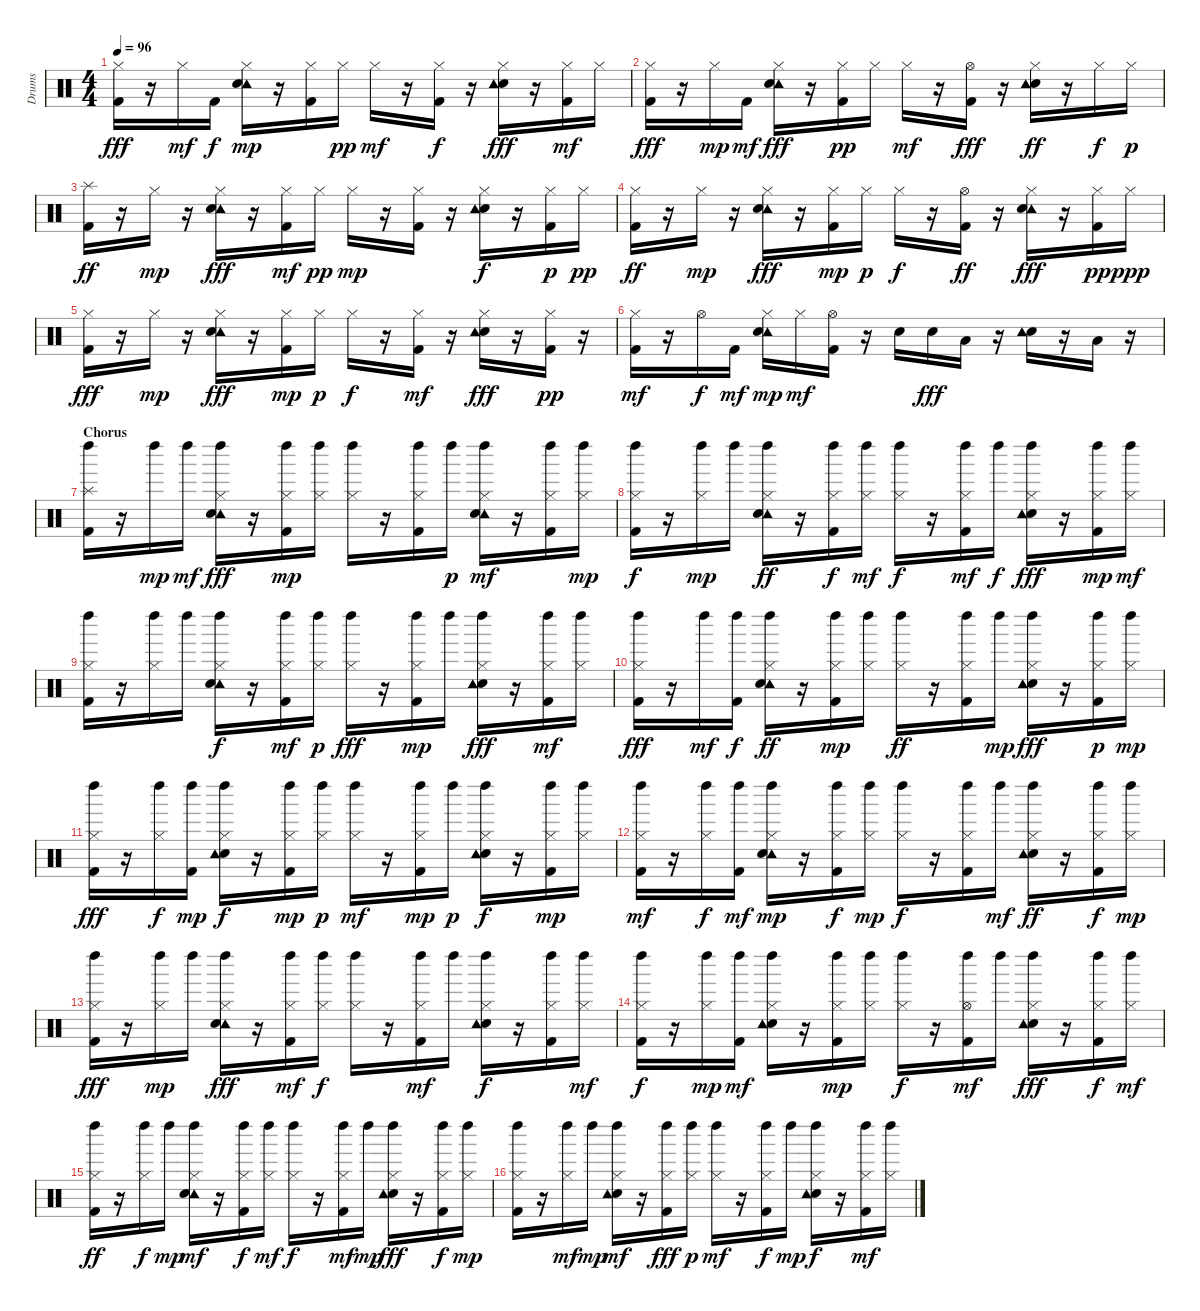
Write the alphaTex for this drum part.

\track ("Drums" "Drums") {instrument percussion}
\staff {score}
\articulation defaults
\ts (4 4)
\tempo 96
\clef neutral
\ks c
("Kick (hit) 2" "Hi-Hat (closed)").16{dy fff} r.16 "Hi-Hat (closed)".16{dy mf} "Kick (hit) 2".16{dy f} ("Hi-Hat (closed)" "Tambourine (hit)" "Snare (hit) 2").16{dy mp} r.16 ("Hi-Hat (closed)" "Kick (hit) 2").16 "Hi-Hat (closed)".16{dy pp} "Hi-Hat (closed)".16{dy mf} r.16 ("Kick (hit) 2" "Hi-Hat (closed)").16{dy f} r.16 ("Snare (hit) 2" "Tambourine (hit)" "Hi-Hat (closed)").16{dy fff} r.16 ("Hi-Hat (closed)" "Kick (hit) 2").16{dy mf} "Hi-Hat (closed)".16 |
("Kick (hit) 2" "Hi-Hat (closed)").16{dy fff} r.16 "Hi-Hat (closed)".16{dy mp} "Kick (hit) 2".16{dy mf} ("Tambourine (hit)" "Snare (hit) 2" "Hi-Hat (closed)").16{dy fff} r.16 ("Hi-Hat (closed)" "Kick (hit) 2").16{dy pp} "Hi-Hat (closed)".16 "Hi-Hat (closed)".16{dy mf} r.16 ("Hi-Hat (open)" "Kick (hit) 2").16{dy fff} r.16 ("Hi-Hat (closed)" "Snare (hit) 2" "Tambourine (hit)").16{dy ff} r.16 "Hi-Hat (closed)".16{dy f} "Hi-Hat (closed)".16{dy p} |
("Kick (hit) 2" "Splash (hit)").16{dy ff} r.16 "Hi-Hat (closed)".16{dy mp} r.16 ("Tambourine (hit)" "Snare (hit) 2" "Hi-Hat (closed)").16{dy fff} r.16 ("Hi-Hat (closed)" "Kick (hit) 2").16{dy mf} "Hi-Hat (closed)".16{dy pp} "Hi-Hat (closed)".16{dy mp} r.16 ("Kick (hit) 2" "Hi-Hat (closed)").16 r.16 ("Snare (hit) 2" "Tambourine (hit)" "Hi-Hat (closed)").16{dy f} r.16 ("Hi-Hat (closed)" "Kick (hit) 2").16{dy p} "Hi-Hat (closed)".16{dy pp} |
("Hi-Hat (closed)" "Kick (hit) 2").16{dy ff} r.16 "Hi-Hat (closed)".16{dy mp} r.16 ("Tambourine (hit)" "Snare (hit) 2" "Hi-Hat (closed)").16{dy fff} r.16 ("Hi-Hat (closed)" "Kick (hit) 2").16{dy mp} "Hi-Hat (closed)".16{dy p} "Hi-Hat (closed)".16{dy f} r.16 ("Kick (hit) 2" "Hi-Hat (open)").16{dy ff} r.16 ("Tambourine (hit)" "Snare (hit) 2" "Hi-Hat (closed)").16{dy fff} r.16 ("Kick (hit) 2" "Hi-Hat (closed)").16{dy pp} "Hi-Hat (closed)".16{dy ppp} |
("Kick (hit) 2" "Hi-Hat (closed)").16{dy fff} r.16 "Hi-Hat (closed)".16{dy mp} r.16 ("Tambourine (hit)" "Snare (hit) 2" "Hi-Hat (closed)").16{dy fff} r.16 ("Hi-Hat (closed)" "Kick (hit) 2").16{dy mp} "Hi-Hat (closed)".16{dy p} "Hi-Hat (closed)".16{dy f} r.16 ("Kick (hit) 2" "Hi-Hat (closed)").16{dy mf} r.16 ("Snare (hit) 2" "Tambourine (hit)" "Hi-Hat (closed)").16{dy fff} r.16 ("Hi-Hat (closed)" "Kick (hit) 2").16{dy pp} r.16 |
("Hi-Hat (closed)" "Kick (hit) 2").16{dy mf} r.16 "Hi-Hat (open)".16{dy f} "Kick (hit) 2".16{dy mf} ("Hi-Hat (closed)" "Tambourine (hit)" "Snare (hit) 2").16{dy mp} "Hi-Hat (closed)".16{dy mf} ("Kick (hit) 2" "Hi-Hat (open)").16 r.16 "Snare (hit) 2".16 "Snare (hit) 2".16{dy fff} "Low Tom (hit)".16 r.16 ("Snare (hit) 2" "Tambourine (hit)").16 r.16 "Low Tom (hit)".16 r.16 |
\section ("" "Chorus")
("Splash (hit)" "Kick (hit) 2" "Left Maraca (hit)").16 r.16 "Left Maraca (hit)".16{dy mp} "Left Maraca (hit)".16{dy mf} ("Left Maraca (hit)" "Tambourine (hit)" "Snare (hit) 2" "Hi-Hat (closed)").16{dy fff} r.16 ("Hi-Hat (closed)" "Kick (hit) 2" "Left Maraca (hit)").16{dy mp} ("Left Maraca (hit)" "Hi-Hat (closed)").16 ("Left Maraca (hit)" "Hi-Hat (closed)").16 r.16 ("Kick (hit) 2" "Hi-Hat (closed)" "Left Maraca (hit)").16 "Left Maraca (hit)".16{dy p} ("Left Maraca (hit)" "Tambourine (hit)" "Snare (hit) 2" "Hi-Hat (closed)").16{dy mf} r.16 ("Left Maraca (hit)" "Hi-Hat (closed)" "Kick (hit) 2").16 ("Left Maraca (hit)" "Hi-Hat (closed)").16{dy mp} |
("Left Maraca (hit)" "Hi-Hat (closed)" "Kick (hit) 2").16{dy f} r.16 ("Hi-Hat (closed)" "Left Maraca (hit)").16{dy mp} "Left Maraca (hit)".16 ("Left Maraca (hit)" "Tambourine (hit)" "Snare (hit) 2" "Hi-Hat (closed)").16{dy ff} r.16 ("Kick (hit) 2" "Hi-Hat (closed)" "Left Maraca (hit)").16{dy f} ("Left Maraca (hit)" "Hi-Hat (closed)").16{dy mf} ("Left Maraca (hit)" "Hi-Hat (closed)").16{dy f} r.16 ("Kick (hit) 2" "Hi-Hat (closed)" "Left Maraca (hit)").16{dy mf} "Left Maraca (hit)".16{dy f} ("Snare (hit) 2" "Tambourine (hit)" "Hi-Hat (closed)" "Left Maraca (hit)").16{dy fff} r.16 ("Kick (hit) 2" "Hi-Hat (closed)" "Left Maraca (hit)").16{dy mp} ("Left Maraca (hit)" "Hi-Hat (closed)").16{dy mf} |
("Left Maraca (hit)" "Hi-Hat (closed)" "Kick (hit) 2").16 r.16 ("Hi-Hat (closed)" "Left Maraca (hit)").16 "Left Maraca (hit)".16 ("Left Maraca (hit)" "Tambourine (hit)" "Snare (hit) 2" "Hi-Hat (closed)").16{dy f} r.16 ("Left Maraca (hit)" "Hi-Hat (closed)" "Kick (hit) 2").16{dy mf} ("Left Maraca (hit)" "Hi-Hat (closed)").16{dy p} ("Left Maraca (hit)" "Hi-Hat (closed)").16{dy fff} r.16 ("Left Maraca (hit)" "Kick (hit) 2" "Hi-Hat (closed)").16{dy mp} "Left Maraca (hit)".16 ("Snare (hit) 2" "Tambourine (hit)" "Hi-Hat (closed)" "Left Maraca (hit)").16{dy fff} r.16 ("Left Maraca (hit)" "Hi-Hat (closed)" "Kick (hit) 2").16{dy mf} ("Left Maraca (hit)" "Hi-Hat (closed)").16 |
("Kick (hit) 2" "Hi-Hat (closed)" "Left Maraca (hit)").16{dy fff} r.16 "Left Maraca (hit)".16{dy mf} ("Left Maraca (hit)" "Kick (hit) 2").16{dy f} ("Left Maraca (hit)" "Tambourine (hit)" "Snare (hit) 2" "Hi-Hat (closed)").16{dy ff} r.16 ("Left Maraca (hit)" "Hi-Hat (closed)" "Kick (hit) 2").16{dy mp} ("Left Maraca (hit)" "Hi-Hat (closed)").16 ("Left Maraca (hit)" "Hi-Hat (closed)").16{dy ff} r.16 ("Kick (hit) 2" "Hi-Hat (closed)" "Left Maraca (hit)").16 "Left Maraca (hit)".16{dy mp} ("Snare (hit) 2" "Tambourine (hit)" "Hi-Hat (closed)" "Left Maraca (hit)").16{dy fff} r.16 ("Kick (hit) 2" "Hi-Hat (closed)" "Left Maraca (hit)").16{dy p} ("Hi-Hat (closed)" "Left Maraca (hit)").16{dy mp} |
("Kick (hit) 2" "Hi-Hat (closed)" "Left Maraca (hit)").16{dy fff} r.16 ("Left Maraca (hit)" "Hi-Hat (closed)").16{dy f} ("Left Maraca (hit)" "Kick (hit) 2").16{dy mp} ("Left Maraca (hit)" "Snare (hit) 2" "Tambourine (hit)" "Hi-Hat (closed)").16{dy f} r.16 ("Left Maraca (hit)" "Kick (hit) 2" "Hi-Hat (closed)").16{dy mp} ("Left Maraca (hit)" "Hi-Hat (closed)").16{dy p} ("Left Maraca (hit)" "Hi-Hat (closed)").16{dy mf} r.16 ("Kick (hit) 2" "Hi-Hat (closed)" "Left Maraca (hit)").16{dy mp} "Left Maraca (hit)".16{dy p} ("Hi-Hat (closed)" "Snare (hit) 2" "Tambourine (hit)" "Left Maraca (hit)").16{dy f} r.16 ("Left Maraca (hit)" "Kick (hit) 2" "Hi-Hat (closed)").16{dy mp} ("Left Maraca (hit)" "Hi-Hat (closed)").16 |
("Left Maraca (hit)" "Hi-Hat (closed)" "Kick (hit) 2").16{dy mf} r.16 ("Left Maraca (hit)" "Hi-Hat (closed)").16{dy f} ("Left Maraca (hit)" "Kick (hit) 2").16{dy mf} ("Left Maraca (hit)" "Tambourine (hit)" "Snare (hit) 2" "Hi-Hat (closed)").16{dy mp} r.16 ("Left Maraca (hit)" "Kick (hit) 2" "Hi-Hat (closed)").16{dy f} ("Left Maraca (hit)" "Hi-Hat (closed)").16{dy mp} ("Left Maraca (hit)" "Hi-Hat (closed)").16{dy f} r.16 ("Kick (hit) 2" "Hi-Hat (closed)" "Left Maraca (hit)").16 "Left Maraca (hit)".16{dy mf} ("Snare (hit) 2" "Tambourine (hit)" "Hi-Hat (closed)" "Left Maraca (hit)").16{dy ff} r.16 ("Left Maraca (hit)" "Kick (hit) 2" "Hi-Hat (closed)").16{dy f} ("Left Maraca (hit)" "Hi-Hat (closed)").16{dy mp} |
("Kick (hit) 2" "Hi-Hat (closed)" "Left Maraca (hit)").16{dy fff} r.16 ("Hi-Hat (closed)" "Left Maraca (hit)").16{dy mp} "Left Maraca (hit)".16 ("Tambourine (hit)" "Snare (hit) 2" "Hi-Hat (closed)" "Left Maraca (hit)").16{dy fff} r.16 ("Left Maraca (hit)" "Kick (hit) 2" "Hi-Hat (closed)").16{dy mf} ("Left Maraca (hit)" "Hi-Hat (closed)").16{dy f} ("Hi-Hat (closed)" "Left Maraca (hit)").16 r.16 ("Kick (hit) 2" "Hi-Hat (closed)" "Left Maraca (hit)").16{dy mf} "Left Maraca (hit)".16 ("Left Maraca (hit)" "Hi-Hat (closed)" "Snare (hit) 2" "Tambourine (hit)").16{dy f} r.16 ("Left Maraca (hit)" "Hi-Hat (closed)" "Kick (hit) 2").16 ("Left Maraca (hit)" "Hi-Hat (closed)").16{dy mf} |
("Left Maraca (hit)" "Kick (hit) 2" "Hi-Hat (closed)").16{dy f} r.16 ("Hi-Hat (closed)" "Left Maraca (hit)").16{dy mp} ("Kick (hit) 2" "Left Maraca (hit)").16{dy mf} ("Left Maraca (hit)" "Hi-Hat (closed)" "Snare (hit) 2" "Tambourine (hit)").16 r.16 ("Left Maraca (hit)" "Hi-Hat (closed)" "Kick (hit) 2").16{dy mp} ("Left Maraca (hit)" "Hi-Hat (closed)").16 ("Left Maraca (hit)" "Hi-Hat (closed)").16{dy f} r.16 ("Kick (hit) 2" "Hi-Hat (open)" "Left Maraca (hit)").16{dy mf} "Left Maraca (hit)".16 ("Snare (hit) 2" "Tambourine (hit)" "Hi-Hat (closed)" "Left Maraca (hit)").16{dy fff} r.16 ("Left Maraca (hit)" "Hi-Hat (closed)" "Kick (hit) 2").16{dy f} ("Left Maraca (hit)" "Hi-Hat (closed)").16{dy mf} |
("Left Maraca (hit)" "Hi-Hat (closed)" "Kick (hit) 2").16{dy ff} r.16 ("Left Maraca (hit)" "Hi-Hat (closed)").16{dy f} "Left Maraca (hit)".16{dy mp} ("Left Maraca (hit)" "Hi-Hat (closed)" "Tambourine (hit)" "Snare (hit) 2").16{dy mf} r.16 ("Left Maraca (hit)" "Hi-Hat (closed)" "Kick (hit) 2").16{dy f} ("Left Maraca (hit)" "Hi-Hat (closed)").16{dy mf} ("Left Maraca (hit)" "Hi-Hat (closed)").16{dy f} r.16 ("Kick (hit) 2" "Hi-Hat (closed)" "Left Maraca (hit)").16{dy mf} "Left Maraca (hit)".16{dy mp} ("Snare (hit) 2" "Tambourine (hit)" "Hi-Hat (closed)" "Left Maraca (hit)").16{dy fff} r.16 ("Left Maraca (hit)" "Kick (hit) 2" "Hi-Hat (closed)").16{dy f} ("Left Maraca (hit)" "Hi-Hat (closed)").16{dy mp} |
("Left Maraca (hit)" "Hi-Hat (closed)" "Kick (hit) 2").16 r.16 ("Left Maraca (hit)" "Hi-Hat (closed)").16{dy mf} "Left Maraca (hit)".16{dy mp} ("Left Maraca (hit)" "Hi-Hat (closed)" "Snare (hit) 2" "Tambourine (hit)").16{dy mf} r.16 ("Hi-Hat (closed)" "Kick (hit) 2" "Left Maraca (hit)").16{dy fff} ("Hi-Hat (closed)" "Left Maraca (hit)").16{dy p} ("Hi-Hat (closed)" "Left Maraca (hit)").16{dy mf} r.16 ("Left Maraca (hit)" "Kick (hit) 2" "Hi-Hat (closed)").16{dy f} "Left Maraca (hit)".16{dy mp} ("Left Maraca (hit)" "Snare (hit) 2" "Tambourine (hit)" "Hi-Hat (closed)").16{dy f} r.16 ("Left Maraca (hit)" "Hi-Hat (closed)" "Kick (hit) 2").16{dy mf} ("Left Maraca (hit)" "Hi-Hat (closed)").16
